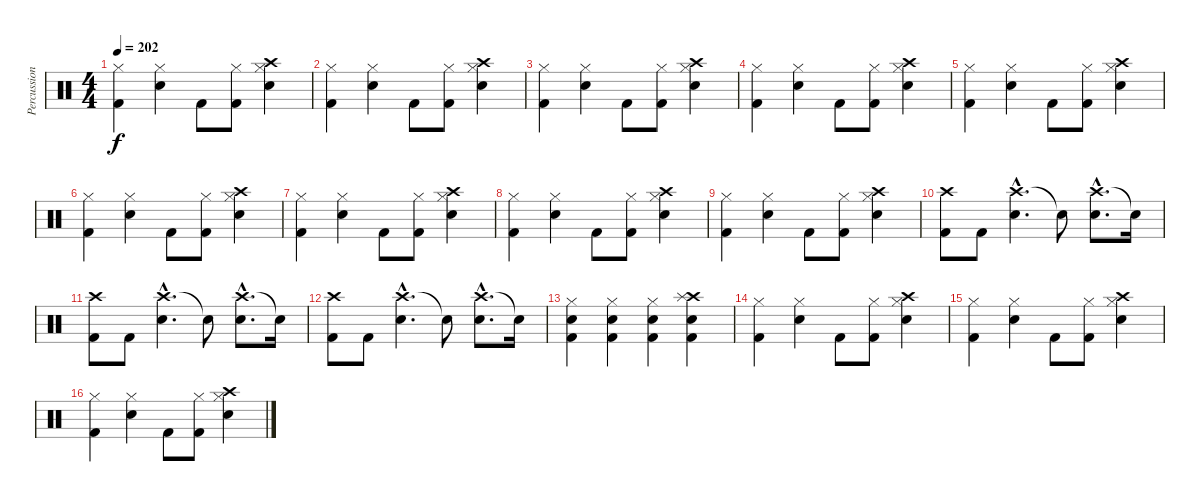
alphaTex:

\track ("Percussioni" "Percussion") {instrument percussion}
\staff {score}
\articulation defaults
\ts (4 4)
\tempo 202
\clef neutral
\ks c
("Hi-Hat (closed)" "Kick (hit) 2").4{dy f} ("Hi-Hat (closed)" "Snare (hit) 2").4 "Kick (hit) 2".8 ("Hi-Hat (closed)" "Kick (hit) 2").8 ("Hi-Hat (closed)" "Crash high (hit)" "Snare (hit) 2").4 |
("Hi-Hat (closed)" "Kick (hit) 2").4 ("Hi-Hat (closed)" "Snare (hit) 2").4 "Kick (hit) 2".8 ("Hi-Hat (closed)" "Kick (hit) 2").8 ("Hi-Hat (closed)" "Crash high (hit)" "Snare (hit) 2").4 |
("Hi-Hat (closed)" "Kick (hit) 2").4 ("Hi-Hat (closed)" "Snare (hit) 2").4 "Kick (hit) 2".8 ("Hi-Hat (closed)" "Kick (hit) 2").8 ("Hi-Hat (closed)" "Crash high (hit)" "Snare (hit) 2").4 |
("Hi-Hat (closed)" "Kick (hit) 2").4 ("Hi-Hat (closed)" "Snare (hit) 2").4 "Kick (hit) 2".8 ("Hi-Hat (closed)" "Kick (hit) 2").8 ("Hi-Hat (closed)" "Crash high (hit)" "Snare (hit) 2").4 |
("Hi-Hat (closed)" "Kick (hit) 2").4 ("Hi-Hat (closed)" "Snare (hit) 2").4 "Kick (hit) 2".8 ("Hi-Hat (closed)" "Kick (hit) 2").8 ("Hi-Hat (closed)" "Crash high (hit)" "Snare (hit) 2").4 |
("Hi-Hat (closed)" "Kick (hit) 2").4 ("Hi-Hat (closed)" "Snare (hit) 2").4 "Kick (hit) 2".8 ("Hi-Hat (closed)" "Kick (hit) 2").8 ("Hi-Hat (closed)" "Crash high (hit)" "Snare (hit) 2").4 |
("Hi-Hat (closed)" "Kick (hit) 2").4 ("Hi-Hat (closed)" "Snare (hit) 2").4 "Kick (hit) 2".8 ("Hi-Hat (closed)" "Kick (hit) 2").8 ("Hi-Hat (closed)" "Crash high (hit)" "Snare (hit) 2").4 |
("Hi-Hat (closed)" "Kick (hit) 2").4 ("Hi-Hat (closed)" "Snare (hit) 2").4 "Kick (hit) 2".8 ("Hi-Hat (closed)" "Kick (hit) 2").8 ("Hi-Hat (closed)" "Crash high (hit)" "Snare (hit) 2").4 |
("Hi-Hat (closed)" "Kick (hit) 2").4 ("Hi-Hat (closed)" "Snare (hit) 2").4 "Kick (hit) 2".8 ("Hi-Hat (closed)" "Kick (hit) 2").8 ("Hi-Hat (closed)" "Crash high (hit)" "Snare (hit) 2").4 |
("Crash high (hit)" "Kick (hit) 2").8 "Kick (hit) 2".8 ("Crash high (hit)"{hac} "Snare (hit) 2"{hac}).4{d} "Snare (hit) 2"{t}.8 ("Crash high (hit)"{hac} "Snare (hit) 2"{hac}).8{d} "Snare (hit)"{t}.16 |
("Crash high (hit)" "Kick (hit) 2").8 "Kick (hit) 2".8 ("Crash high (hit)"{hac} "Snare (hit) 2"{hac}).4{d} "Snare (hit) 2"{t}.8 ("Crash high (hit)"{hac} "Snare (hit) 2"{hac}).8{d} "Snare (hit)"{t}.16 |
("Crash high (hit)" "Kick (hit) 2").8 "Kick (hit) 2".8 ("Crash high (hit)"{hac} "Snare (hit) 2"{hac}).4{d} "Snare (hit) 2"{t}.8 ("Crash high (hit)"{hac} "Snare (hit) 2"{hac}).8{d} "Snare (hit)"{t}.16 |
("Hi-Hat (closed)" "Snare (hit) 2" "Kick (hit) 2").4 ("Hi-Hat (closed)" "Snare (hit) 2" "Kick (hit) 2").4 ("Hi-Hat (closed)" "Snare (hit) 2" "Kick (hit) 2").4 ("Crash high (hit)" "Splash (hit)" "Snare (hit) 2" "Kick (hit) 2").4 |
("Hi-Hat (closed)" "Kick (hit) 2").4 ("Hi-Hat (closed)" "Snare (hit) 2").4 "Kick (hit) 2".8 ("Hi-Hat (closed)" "Kick (hit) 2").8 ("Hi-Hat (closed)" "Crash high (hit)" "Snare (hit) 2").4 |
("Hi-Hat (closed)" "Kick (hit) 2").4 ("Hi-Hat (closed)" "Snare (hit) 2").4 "Kick (hit) 2".8 ("Hi-Hat (closed)" "Kick (hit) 2").8 ("Hi-Hat (closed)" "Crash high (hit)" "Snare (hit) 2").4 |
("Hi-Hat (closed)" "Kick (hit) 2").4 ("Hi-Hat (closed)" "Snare (hit) 2").4 "Kick (hit) 2".8 ("Hi-Hat (closed)" "Kick (hit) 2").8 ("Hi-Hat (closed)" "Crash high (hit)" "Snare (hit) 2").4
